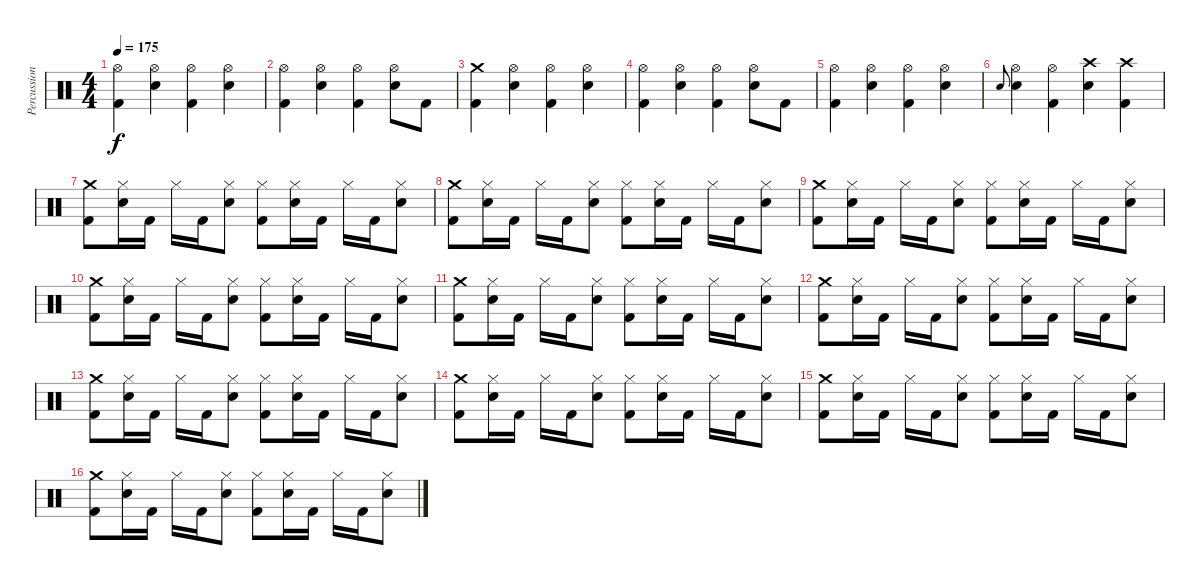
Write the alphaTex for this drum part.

\track ("Percussion" "Percussion") {instrument percussion}
\staff {score}
\articulation defaults
\ts (4 4)
\tempo 175
\clef neutral
\ks c
("Hi-Hat (open)" "Kick (hit) 2").4{dy f} ("Hi-Hat (open)" "Electric Snare (hit)").4 ("Hi-Hat (open)" "Kick (hit) 2").4 ("Hi-Hat (open)" "Electric Snare (hit)").4 |
("Hi-Hat (open)" "Kick (hit) 2").4 ("Hi-Hat (open)" "Electric Snare (hit)").4 ("Hi-Hat (open)" "Kick (hit) 2").4 ("Hi-Hat (open)" "Electric Snare (hit)").8 "Kick (hit) 2".8 |
("Crash medium (hit)" "Kick (hit) 2").4 ("Hi-Hat (open)" "Electric Snare (hit)").4 ("Hi-Hat (open)" "Kick (hit) 2").4 ("Hi-Hat (open)" "Electric Snare (hit)").4 |
("Hi-Hat (open)" "Kick (hit) 2").4 ("Hi-Hat (open)" "Electric Snare (hit)").4 ("Hi-Hat (open)" "Kick (hit) 2").4 ("Hi-Hat (open)" "Electric Snare (hit)").8 "Kick (hit) 2".8 |
("Hi-Hat (open)" "Kick (hit) 2").4 ("Hi-Hat (open)" "Electric Snare (hit)").4 ("Hi-Hat (open)" "Kick (hit) 2").4 ("Hi-Hat (open)" "Electric Snare (hit)").4 |
"Electric Snare (hit)".8{gr onbeat} ("Hi-Hat (open)" "Electric Snare (hit)").4 ("Hi-Hat (open)" "Kick (hit) 2").4 ("Crash high (hit)" "Electric Snare (hit)").4 ("Crash high (hit)" "Kick (hit) 2").4 |
("Crash medium (hit)" "Kick (hit) 2").8 ("Hi-Hat (closed)" "Electric Snare (hit)").16 "Kick (hit) 2".16 "Hi-Hat (closed)".16 "Kick (hit) 2".16 ("Hi-Hat (closed)" "Electric Snare (hit)").8 ("Hi-Hat (closed)" "Kick (hit) 2").8 ("Hi-Hat (closed)" "Electric Snare (hit)").16 "Kick (hit) 2".16 "Hi-Hat (closed)".16 "Kick (hit) 2".16 ("Hi-Hat (closed)" "Electric Snare (hit)").8 |
("Crash medium (hit)" "Kick (hit) 2").8 ("Hi-Hat (closed)" "Electric Snare (hit)").16 "Kick (hit) 2".16 "Hi-Hat (closed)".16 "Kick (hit) 2".16 ("Hi-Hat (closed)" "Electric Snare (hit)").8 ("Hi-Hat (closed)" "Kick (hit) 2").8 ("Hi-Hat (closed)" "Electric Snare (hit)").16 "Kick (hit) 2".16 "Hi-Hat (closed)".16 "Kick (hit) 2".16 ("Hi-Hat (closed)" "Electric Snare (hit)").8 |
("Crash medium (hit)" "Kick (hit) 2").8 ("Hi-Hat (closed)" "Electric Snare (hit)").16 "Kick (hit) 2".16 "Hi-Hat (closed)".16 "Kick (hit) 2".16 ("Hi-Hat (closed)" "Electric Snare (hit)").8 ("Hi-Hat (closed)" "Kick (hit) 2").8 ("Hi-Hat (closed)" "Electric Snare (hit)").16 "Kick (hit) 2".16 "Hi-Hat (closed)".16 "Kick (hit) 2".16 ("Hi-Hat (closed)" "Electric Snare (hit)").8 |
("Crash medium (hit)" "Kick (hit) 2").8 ("Hi-Hat (closed)" "Electric Snare (hit)").16 "Kick (hit) 2".16 "Hi-Hat (closed)".16 "Kick (hit) 2".16 ("Hi-Hat (closed)" "Electric Snare (hit)").8 ("Hi-Hat (closed)" "Kick (hit) 2").8 ("Hi-Hat (closed)" "Electric Snare (hit)").16 "Kick (hit) 2".16 "Hi-Hat (closed)".16 "Kick (hit) 2".16 ("Hi-Hat (closed)" "Electric Snare (hit)").8 |
("Crash medium (hit)" "Kick (hit) 2").8 ("Hi-Hat (closed)" "Electric Snare (hit)").16 "Kick (hit) 2".16 "Hi-Hat (closed)".16 "Kick (hit) 2".16 ("Hi-Hat (closed)" "Electric Snare (hit)").8 ("Hi-Hat (closed)" "Kick (hit) 2").8 ("Hi-Hat (closed)" "Electric Snare (hit)").16 "Kick (hit) 2".16 "Hi-Hat (closed)".16 "Kick (hit) 2".16 ("Hi-Hat (closed)" "Electric Snare (hit)").8 |
("Crash medium (hit)" "Kick (hit) 2").8 ("Hi-Hat (closed)" "Electric Snare (hit)").16 "Kick (hit) 2".16 "Hi-Hat (closed)".16 "Kick (hit) 2".16 ("Hi-Hat (closed)" "Electric Snare (hit)").8 ("Hi-Hat (closed)" "Kick (hit) 2").8 ("Hi-Hat (closed)" "Electric Snare (hit)").16 "Kick (hit) 2".16 "Hi-Hat (closed)".16 "Kick (hit) 2".16 ("Hi-Hat (closed)" "Electric Snare (hit)").8 |
("Crash medium (hit)" "Kick (hit) 2").8 ("Hi-Hat (closed)" "Electric Snare (hit)").16 "Kick (hit) 2".16 "Hi-Hat (closed)".16 "Kick (hit) 2".16 ("Hi-Hat (closed)" "Electric Snare (hit)").8 ("Hi-Hat (closed)" "Kick (hit) 2").8 ("Hi-Hat (closed)" "Electric Snare (hit)").16 "Kick (hit) 2".16 "Hi-Hat (closed)".16 "Kick (hit) 2".16 ("Hi-Hat (closed)" "Electric Snare (hit)").8 |
("Crash medium (hit)" "Kick (hit) 2").8 ("Hi-Hat (closed)" "Electric Snare (hit)").16 "Kick (hit) 2".16 "Hi-Hat (closed)".16 "Kick (hit) 2".16 ("Hi-Hat (closed)" "Electric Snare (hit)").8 ("Hi-Hat (closed)" "Kick (hit) 2").8 ("Hi-Hat (closed)" "Electric Snare (hit)").16 "Kick (hit) 2".16 "Hi-Hat (closed)".16 "Kick (hit) 2".16 ("Hi-Hat (closed)" "Electric Snare (hit)").8 |
("Crash medium (hit)" "Kick (hit) 2").8 ("Hi-Hat (closed)" "Electric Snare (hit)").16 "Kick (hit) 2".16 "Hi-Hat (closed)".16 "Kick (hit) 2".16 ("Hi-Hat (closed)" "Electric Snare (hit)").8 ("Hi-Hat (closed)" "Kick (hit) 2").8 ("Hi-Hat (closed)" "Electric Snare (hit)").16 "Kick (hit) 2".16 "Hi-Hat (closed)".16 "Kick (hit) 2".16 ("Hi-Hat (closed)" "Electric Snare (hit)").8 |
("Crash medium (hit)" "Kick (hit) 2").8 ("Hi-Hat (closed)" "Electric Snare (hit)").16 "Kick (hit) 2".16 "Hi-Hat (closed)".16 "Kick (hit) 2".16 ("Hi-Hat (closed)" "Electric Snare (hit)").8 ("Hi-Hat (closed)" "Kick (hit) 2").8 ("Hi-Hat (closed)" "Electric Snare (hit)").16 "Kick (hit) 2".16 "Hi-Hat (closed)".16 "Kick (hit) 2".16 ("Hi-Hat (closed)" "Electric Snare (hit)").8
